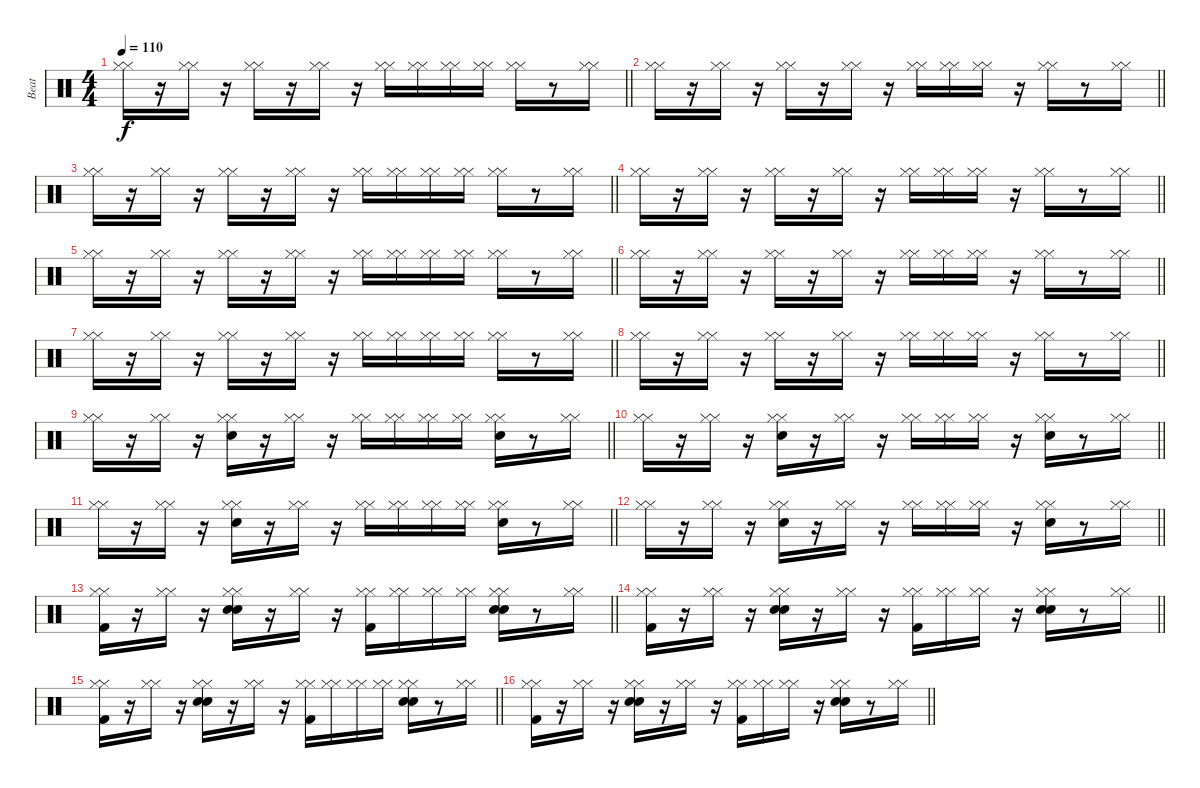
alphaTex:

\track ("Beat" "Beat") {instrument percussion}
\staff {score}
\articulation defaults
\ts (4 4)
\tempo 110
\clef neutral
\barLineRight lightlight
\ks c
("Hi-Hat (closed)" "Hi-Hat (closed)").16{dy f} r.16 ("Hi-Hat (closed)" "Hi-Hat (closed)").16 r.16 ("Hi-Hat (closed)" "Hi-Hat (closed)").16 r.16 ("Hi-Hat (closed)" "Hi-Hat (closed)").16 r.16 ("Hi-Hat (closed)" "Hi-Hat (closed)").16 ("Hi-Hat (closed)" "Hi-Hat (closed)").16 ("Hi-Hat (closed)" "Hi-Hat (closed)").16 ("Hi-Hat (closed)" "Hi-Hat (closed)").16 ("Hi-Hat (closed)" "Hi-Hat (closed)").16 r.8 ("Hi-Hat (closed)" "Hi-Hat (closed)").16 |
\barLineRight lightlight
("Hi-Hat (closed)" "Hi-Hat (closed)").16 r.16 ("Hi-Hat (closed)" "Hi-Hat (closed)").16 r.16 ("Hi-Hat (closed)" "Hi-Hat (closed)").16 r.16 ("Hi-Hat (closed)" "Hi-Hat (closed)").16 r.16 ("Hi-Hat (closed)" "Hi-Hat (closed)").16 ("Hi-Hat (closed)" "Hi-Hat (closed)").16 ("Hi-Hat (closed)" "Hi-Hat (closed)").16 r.16 ("Hi-Hat (closed)" "Hi-Hat (closed)").16 r.8 ("Hi-Hat (closed)" "Hi-Hat (closed)").16 |
\barLineRight lightlight
("Hi-Hat (closed)" "Hi-Hat (closed)").16 r.16 ("Hi-Hat (closed)" "Hi-Hat (closed)").16 r.16 ("Hi-Hat (closed)" "Hi-Hat (closed)").16 r.16 ("Hi-Hat (closed)" "Hi-Hat (closed)").16 r.16 ("Hi-Hat (closed)" "Hi-Hat (closed)").16 ("Hi-Hat (closed)" "Hi-Hat (closed)").16 ("Hi-Hat (closed)" "Hi-Hat (closed)").16 ("Hi-Hat (closed)" "Hi-Hat (closed)").16 ("Hi-Hat (closed)" "Hi-Hat (closed)").16 r.8 ("Hi-Hat (closed)" "Hi-Hat (closed)").16 |
\barLineRight lightlight
("Hi-Hat (closed)" "Hi-Hat (closed)").16 r.16 ("Hi-Hat (closed)" "Hi-Hat (closed)").16 r.16 ("Hi-Hat (closed)" "Hi-Hat (closed)").16 r.16 ("Hi-Hat (closed)" "Hi-Hat (closed)").16 r.16 ("Hi-Hat (closed)" "Hi-Hat (closed)").16 ("Hi-Hat (closed)" "Hi-Hat (closed)").16 ("Hi-Hat (closed)" "Hi-Hat (closed)").16 r.16 ("Hi-Hat (closed)" "Hi-Hat (closed)").16 r.8 ("Hi-Hat (closed)" "Hi-Hat (closed)").16 |
\barLineRight lightlight
("Hi-Hat (closed)" "Hi-Hat (closed)").16 r.16 ("Hi-Hat (closed)" "Hi-Hat (closed)").16 r.16 ("Hi-Hat (closed)" "Hi-Hat (closed)").16 r.16 ("Hi-Hat (closed)" "Hi-Hat (closed)").16 r.16 ("Hi-Hat (closed)" "Hi-Hat (closed)").16 ("Hi-Hat (closed)" "Hi-Hat (closed)").16 ("Hi-Hat (closed)" "Hi-Hat (closed)").16 ("Hi-Hat (closed)" "Hi-Hat (closed)").16 ("Hi-Hat (closed)" "Hi-Hat (closed)").16 r.8 ("Hi-Hat (closed)" "Hi-Hat (closed)").16 |
\barLineRight lightlight
("Hi-Hat (closed)" "Hi-Hat (closed)").16 r.16 ("Hi-Hat (closed)" "Hi-Hat (closed)").16 r.16 ("Hi-Hat (closed)" "Hi-Hat (closed)").16 r.16 ("Hi-Hat (closed)" "Hi-Hat (closed)").16 r.16 ("Hi-Hat (closed)" "Hi-Hat (closed)").16 ("Hi-Hat (closed)" "Hi-Hat (closed)").16 ("Hi-Hat (closed)" "Hi-Hat (closed)").16 r.16 ("Hi-Hat (closed)" "Hi-Hat (closed)").16 r.8 ("Hi-Hat (closed)" "Hi-Hat (closed)").16 |
\barLineRight lightlight
("Hi-Hat (closed)" "Hi-Hat (closed)").16 r.16 ("Hi-Hat (closed)" "Hi-Hat (closed)").16 r.16 ("Hi-Hat (closed)" "Hi-Hat (closed)").16 r.16 ("Hi-Hat (closed)" "Hi-Hat (closed)").16 r.16 ("Hi-Hat (closed)" "Hi-Hat (closed)").16 ("Hi-Hat (closed)" "Hi-Hat (closed)").16 ("Hi-Hat (closed)" "Hi-Hat (closed)").16 ("Hi-Hat (closed)" "Hi-Hat (closed)").16 ("Hi-Hat (closed)" "Hi-Hat (closed)").16 r.8 ("Hi-Hat (closed)" "Hi-Hat (closed)").16 |
\barLineRight lightlight
("Hi-Hat (closed)" "Hi-Hat (closed)").16 r.16 ("Hi-Hat (closed)" "Hi-Hat (closed)").16 r.16 ("Hi-Hat (closed)" "Hi-Hat (closed)").16 r.16 ("Hi-Hat (closed)" "Hi-Hat (closed)").16 r.16 ("Hi-Hat (closed)" "Hi-Hat (closed)").16 ("Hi-Hat (closed)" "Hi-Hat (closed)").16 ("Hi-Hat (closed)" "Hi-Hat (closed)").16 r.16 ("Hi-Hat (closed)" "Hi-Hat (closed)").16 r.8 ("Hi-Hat (closed)" "Hi-Hat (closed)").16 |
\barLineRight lightlight
("Hi-Hat (closed)" "Hi-Hat (closed)").16 r.16 ("Hi-Hat (closed)" "Hi-Hat (closed)").16 r.16 ("Hi-Hat (closed)" "Hi-Hat (closed)" "Hand Clap (hit)").16 r.16 ("Hi-Hat (closed)" "Hi-Hat (closed)").16 r.16 ("Hi-Hat (closed)" "Hi-Hat (closed)").16 ("Hi-Hat (closed)" "Hi-Hat (closed)").16 ("Hi-Hat (closed)" "Hi-Hat (closed)").16 ("Hi-Hat (closed)" "Hi-Hat (closed)").16 ("Hi-Hat (closed)" "Hi-Hat (closed)" "Hand Clap (hit)").16 r.8 ("Hi-Hat (closed)" "Hi-Hat (closed)").16 |
\barLineRight lightlight
("Hi-Hat (closed)" "Hi-Hat (closed)").16 r.16 ("Hi-Hat (closed)" "Hi-Hat (closed)").16 r.16 ("Hi-Hat (closed)" "Hi-Hat (closed)" "Hand Clap (hit)").16 r.16 ("Hi-Hat (closed)" "Hi-Hat (closed)").16 r.16 ("Hi-Hat (closed)" "Hi-Hat (closed)").16 ("Hi-Hat (closed)" "Hi-Hat (closed)").16 ("Hi-Hat (closed)" "Hi-Hat (closed)").16 r.16 ("Hi-Hat (closed)" "Hi-Hat (closed)" "Hand Clap (hit)").16 r.8 ("Hi-Hat (closed)" "Hi-Hat (closed)").16 |
\barLineRight lightlight
("Hi-Hat (closed)" "Hi-Hat (closed)").16 r.16 ("Hi-Hat (closed)" "Hi-Hat (closed)").16 r.16 ("Hi-Hat (closed)" "Hi-Hat (closed)" "Hand Clap (hit)").16 r.16 ("Hi-Hat (closed)" "Hi-Hat (closed)").16 r.16 ("Hi-Hat (closed)" "Hi-Hat (closed)").16 ("Hi-Hat (closed)" "Hi-Hat (closed)").16 ("Hi-Hat (closed)" "Hi-Hat (closed)").16 ("Hi-Hat (closed)" "Hi-Hat (closed)").16 ("Hi-Hat (closed)" "Hi-Hat (closed)" "Hand Clap (hit)").16 r.8 ("Hi-Hat (closed)" "Hi-Hat (closed)").16 |
\barLineRight lightlight
("Hi-Hat (closed)" "Hi-Hat (closed)").16 r.16 ("Hi-Hat (closed)" "Hi-Hat (closed)").16 r.16 ("Hi-Hat (closed)" "Hi-Hat (closed)" "Hand Clap (hit)").16 r.16 ("Hi-Hat (closed)" "Hi-Hat (closed)").16 r.16 ("Hi-Hat (closed)" "Hi-Hat (closed)").16 ("Hi-Hat (closed)" "Hi-Hat (closed)").16 ("Hi-Hat (closed)" "Hi-Hat (closed)").16 r.16 ("Hi-Hat (closed)" "Hi-Hat (closed)" "Hand Clap (hit)").16 r.8 ("Hi-Hat (closed)" "Hi-Hat (closed)").16 |
\barLineRight lightlight
("Hi-Hat (closed)" "Hi-Hat (closed)" "Kick (hit) 2").16 r.16 ("Hi-Hat (closed)" "Hi-Hat (closed)").16 r.16 ("Hi-Hat (closed)" "Hi-Hat (closed)" "Electric Snare (hit)" "Hand Clap (hit)").16 r.16 ("Hi-Hat (closed)" "Hi-Hat (closed)").16 r.16 ("Hi-Hat (closed)" "Hi-Hat (closed)" "Kick (hit) 2").16 ("Hi-Hat (closed)" "Hi-Hat (closed)").16 ("Hi-Hat (closed)" "Hi-Hat (closed)").16 ("Hi-Hat (closed)" "Hi-Hat (closed)").16 ("Hi-Hat (closed)" "Hi-Hat (closed)" "Electric Snare (hit)" "Hand Clap (hit)").16 r.8 ("Hi-Hat (closed)" "Hi-Hat (closed)").16 |
\barLineRight lightlight
("Hi-Hat (closed)" "Hi-Hat (closed)" "Kick (hit) 2").16 r.16 ("Hi-Hat (closed)" "Hi-Hat (closed)").16 r.16 ("Hi-Hat (closed)" "Hi-Hat (closed)" "Electric Snare (hit)" "Hand Clap (hit)").16 r.16 ("Hi-Hat (closed)" "Hi-Hat (closed)").16 r.16 ("Hi-Hat (closed)" "Hi-Hat (closed)" "Kick (hit) 2").16 ("Hi-Hat (closed)" "Hi-Hat (closed)").16 ("Hi-Hat (closed)" "Hi-Hat (closed)").16 r.16 ("Hi-Hat (closed)" "Hi-Hat (closed)" "Electric Snare (hit)" "Hand Clap (hit)").16 r.8 ("Hi-Hat (closed)" "Hi-Hat (closed)").16 |
\barLineRight lightlight
("Hi-Hat (closed)" "Hi-Hat (closed)" "Kick (hit) 2").16 r.16 ("Hi-Hat (closed)" "Hi-Hat (closed)").16 r.16 ("Hi-Hat (closed)" "Hi-Hat (closed)" "Electric Snare (hit)" "Hand Clap (hit)").16 r.16 ("Hi-Hat (closed)" "Hi-Hat (closed)").16 r.16 ("Hi-Hat (closed)" "Hi-Hat (closed)" "Kick (hit) 2").16 ("Hi-Hat (closed)" "Hi-Hat (closed)").16 ("Hi-Hat (closed)" "Hi-Hat (closed)").16 ("Hi-Hat (closed)" "Hi-Hat (closed)").16 ("Hi-Hat (closed)" "Hi-Hat (closed)" "Electric Snare (hit)" "Hand Clap (hit)").16 r.8 ("Hi-Hat (closed)" "Hi-Hat (closed)").16 |
\barLineRight lightlight
("Hi-Hat (closed)" "Hi-Hat (closed)" "Kick (hit) 2").16 r.16 ("Hi-Hat (closed)" "Hi-Hat (closed)").16 r.16 ("Hi-Hat (closed)" "Hi-Hat (closed)" "Electric Snare (hit)" "Hand Clap (hit)").16 r.16 ("Hi-Hat (closed)" "Hi-Hat (closed)").16 r.16 ("Hi-Hat (closed)" "Hi-Hat (closed)" "Kick (hit) 2").16 ("Hi-Hat (closed)" "Hi-Hat (closed)").16 ("Hi-Hat (closed)" "Hi-Hat (closed)").16 r.16 ("Hi-Hat (closed)" "Hi-Hat (closed)" "Electric Snare (hit)" "Hand Clap (hit)").16 r.8 ("Hi-Hat (closed)" "Hi-Hat (closed)").16
